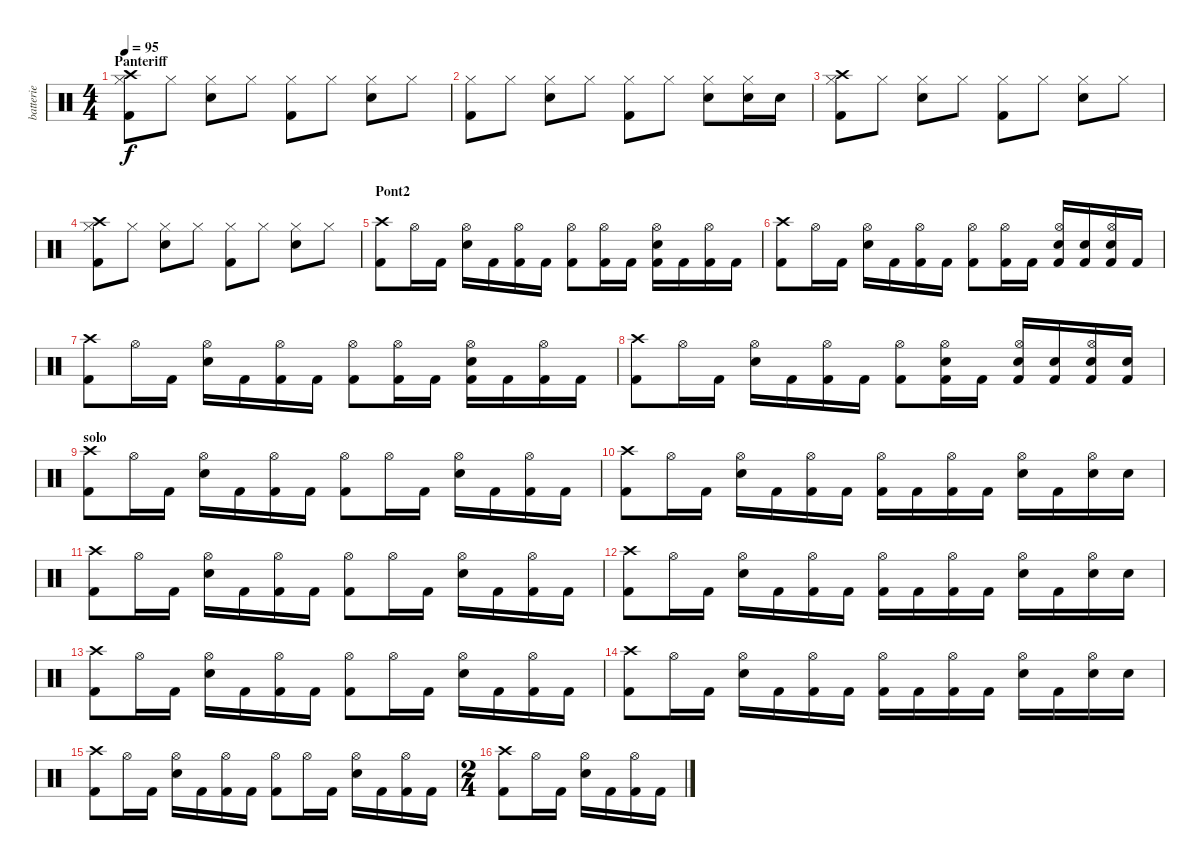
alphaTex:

\track ("batterie" "batterie") {instrument percussion}
\staff {score}
\articulation defaults
\ts (4 4)
\section ("" "Panteriff")
\tempo 95
\clef neutral
\ks c
("Crash high (hit)" "Kick (hit) 2" "Hi-Hat (closed)").8{dy f} "Hi-Hat (closed)".8 ("Snare (hit) 2" "Hi-Hat (closed)").8 "Hi-Hat (closed)".8 ("Kick (hit) 2" "Hi-Hat (closed)").8 "Hi-Hat (closed)".8 ("Snare (hit) 2" "Hi-Hat (closed)").8 "Hi-Hat (closed)".8 |
("Kick (hit) 2" "Hi-Hat (closed)").8 "Hi-Hat (closed)".8 ("Snare (hit) 2" "Hi-Hat (closed)").8 "Hi-Hat (closed)".8 ("Kick (hit) 2" "Hi-Hat (closed)").8 "Hi-Hat (closed)".8 ("Snare (hit) 2" "Hi-Hat (closed)").8 ("Snare (hit) 2" "Hi-Hat (closed)").16 "Snare (hit) 2".16 |
("Crash high (hit)" "Kick (hit) 2" "Hi-Hat (closed)").8 "Hi-Hat (closed)".8 ("Snare (hit) 2" "Hi-Hat (closed)").8 "Hi-Hat (closed)".8 ("Kick (hit) 2" "Hi-Hat (closed)").8 "Hi-Hat (closed)".8 ("Snare (hit) 2" "Hi-Hat (closed)").8 "Hi-Hat (closed)".8 |
("Crash high (hit)" "Kick (hit) 2" "Hi-Hat (closed)").8 "Hi-Hat (closed)".8 ("Snare (hit) 2" "Hi-Hat (closed)").8 "Hi-Hat (closed)".8 ("Kick (hit) 2" "Hi-Hat (closed)").8 "Hi-Hat (closed)".8 ("Snare (hit) 2" "Hi-Hat (closed)").8 "Hi-Hat (closed)".8 |
\section ("" "Pont2")
("Crash high (hit)" "Kick (hit) 2").8 "Hi-Hat (open)".16 "Kick (hit) 2".16 ("Electric Snare (hit)" "Hi-Hat (open)").16 "Kick (hit) 2".16 ("Kick (hit) 2" "Hi-Hat (open)").16 "Kick (hit) 2".16 ("Kick (hit) 2" "Hi-Hat (open)").8 ("Kick (hit) 2" "Hi-Hat (open)").16 "Kick (hit) 2".16 ("Electric Snare (hit)" "Kick (hit) 2" "Hi-Hat (open)").16 "Kick (hit) 2".16 ("Kick (hit) 2" "Hi-Hat (open)").16 "Kick (hit) 2".16 |
("Crash high (hit)" "Kick (hit) 2").8 "Hi-Hat (open)".16 "Kick (hit) 2".16 ("Electric Snare (hit)" "Hi-Hat (open)").16 "Kick (hit) 2".16 ("Kick (hit) 2" "Hi-Hat (open)").16 "Kick (hit) 2".16 ("Kick (hit) 2" "Hi-Hat (open)").8 ("Kick (hit) 2" "Hi-Hat (open)").16 "Kick (hit) 2".16 ("Electric Snare (hit)" "Kick (hit) 2" "Hi-Hat (open)").16 ("Electric Snare (hit)" "Kick (hit) 2").16 ("Electric Snare (hit)" "Kick (hit) 2" "Hi-Hat (open)").16 "Kick (hit) 2".16 |
("Crash high (hit)" "Kick (hit) 2").8 "Hi-Hat (open)".16 "Kick (hit) 2".16 ("Electric Snare (hit)" "Hi-Hat (open)").16 "Kick (hit) 2".16 ("Kick (hit) 2" "Hi-Hat (open)").16 "Kick (hit) 2".16 ("Kick (hit) 2" "Hi-Hat (open)").8 ("Kick (hit) 2" "Hi-Hat (open)").16 "Kick (hit) 2".16 ("Electric Snare (hit)" "Kick (hit) 2" "Hi-Hat (open)").16 "Kick (hit) 2".16 ("Kick (hit) 2" "Hi-Hat (open)").16 "Kick (hit) 2".16 |
("Crash high (hit)" "Kick (hit) 2").8 "Hi-Hat (open)".16 "Kick (hit) 2".16 ("Electric Snare (hit)" "Hi-Hat (open)").16 "Kick (hit) 2".16 ("Kick (hit) 2" "Hi-Hat (open)").16 "Kick (hit) 2".16 ("Kick (hit) 2" "Hi-Hat (open)").8 ("Electric Snare (hit)" "Kick (hit) 2" "Hi-Hat (open)").16 "Kick (hit) 2".16 ("Electric Snare (hit)" "Kick (hit) 2" "Hi-Hat (open)").16 ("Electric Snare (hit)" "Kick (hit) 2").16 ("Electric Snare (hit)" "Kick (hit) 2" "Hi-Hat (open)").16 ("Electric Snare (hit)" "Kick (hit) 2").16 |
\section ("" "solo")
("Crash high (hit)" "Kick (hit) 2").8 "Hi-Hat (open)".16 "Kick (hit) 2".16 ("Electric Snare (hit)" "Hi-Hat (open)").16 "Kick (hit) 2".16 ("Kick (hit) 2" "Hi-Hat (open)").16 "Kick (hit) 2".16 ("Kick (hit) 2" "Hi-Hat (open)").8 "Hi-Hat (open)".16 "Kick (hit) 2".16 ("Electric Snare (hit)" "Hi-Hat (open)").16 "Kick (hit) 2".16 ("Kick (hit) 2" "Hi-Hat (open)").16 "Kick (hit) 2".16 |
("Crash high (hit)" "Kick (hit) 2").8 "Hi-Hat (open)".16 "Kick (hit) 2".16 ("Electric Snare (hit)" "Hi-Hat (open)").16 "Kick (hit) 2".16 ("Kick (hit) 2" "Hi-Hat (open)").16 "Kick (hit) 2".16 ("Kick (hit) 2" "Hi-Hat (open)").16 "Kick (hit) 2".16 ("Kick (hit) 2" "Hi-Hat (open)").16 "Kick (hit) 2".16 ("Electric Snare (hit)" "Hi-Hat (open)").16 "Kick (hit) 2".16 ("Electric Snare (hit)" "Hi-Hat (open)").16 "Electric Snare (hit)".16 |
("Crash high (hit)" "Kick (hit) 2").8 "Hi-Hat (open)".16 "Kick (hit) 2".16 ("Electric Snare (hit)" "Hi-Hat (open)").16 "Kick (hit) 2".16 ("Kick (hit) 2" "Hi-Hat (open)").16 "Kick (hit) 2".16 ("Kick (hit) 2" "Hi-Hat (open)").8 "Hi-Hat (open)".16 "Kick (hit) 2".16 ("Electric Snare (hit)" "Hi-Hat (open)").16 "Kick (hit) 2".16 ("Kick (hit) 2" "Hi-Hat (open)").16 "Kick (hit) 2".16 |
("Crash high (hit)" "Kick (hit) 2").8 "Hi-Hat (open)".16 "Kick (hit) 2".16 ("Electric Snare (hit)" "Hi-Hat (open)").16 "Kick (hit) 2".16 ("Kick (hit) 2" "Hi-Hat (open)").16 "Kick (hit) 2".16 ("Kick (hit) 2" "Hi-Hat (open)").16 "Kick (hit) 2".16 ("Kick (hit) 2" "Hi-Hat (open)").16 "Kick (hit) 2".16 ("Electric Snare (hit)" "Hi-Hat (open)").16 "Kick (hit) 2".16 ("Electric Snare (hit)" "Hi-Hat (open)").16 "Electric Snare (hit)".16 |
("Crash high (hit)" "Kick (hit) 2").8 "Hi-Hat (open)".16 "Kick (hit) 2".16 ("Electric Snare (hit)" "Hi-Hat (open)").16 "Kick (hit) 2".16 ("Kick (hit) 2" "Hi-Hat (open)").16 "Kick (hit) 2".16 ("Kick (hit) 2" "Hi-Hat (open)").8 "Hi-Hat (open)".16 "Kick (hit) 2".16 ("Electric Snare (hit)" "Hi-Hat (open)").16 "Kick (hit) 2".16 ("Kick (hit) 2" "Hi-Hat (open)").16 "Kick (hit) 2".16 |
("Crash high (hit)" "Kick (hit) 2").8 "Hi-Hat (open)".16 "Kick (hit) 2".16 ("Electric Snare (hit)" "Hi-Hat (open)").16 "Kick (hit) 2".16 ("Kick (hit) 2" "Hi-Hat (open)").16 "Kick (hit) 2".16 ("Kick (hit) 2" "Hi-Hat (open)").16 "Kick (hit) 2".16 ("Kick (hit) 2" "Hi-Hat (open)").16 "Kick (hit) 2".16 ("Electric Snare (hit)" "Hi-Hat (open)").16 "Kick (hit) 2".16 ("Electric Snare (hit)" "Hi-Hat (open)").16 "Electric Snare (hit)".16 |
("Crash high (hit)" "Kick (hit) 2").8 "Hi-Hat (open)".16 "Kick (hit) 2".16 ("Electric Snare (hit)" "Hi-Hat (open)").16 "Kick (hit) 2".16 ("Kick (hit) 2" "Hi-Hat (open)").16 "Kick (hit) 2".16 ("Kick (hit) 2" "Hi-Hat (open)").8 "Hi-Hat (open)".16 "Kick (hit) 2".16 ("Electric Snare (hit)" "Hi-Hat (open)").16 "Kick (hit) 2".16 ("Kick (hit) 2" "Hi-Hat (open)").16 "Kick (hit) 2".16 |
\ts (2 4)
("Crash high (hit)" "Kick (hit) 2").8 "Hi-Hat (open)".16 "Kick (hit) 2".16 ("Electric Snare (hit)" "Hi-Hat (open)").16 "Kick (hit) 2".16 ("Kick (hit) 2" "Hi-Hat (open)").16 "Kick (hit) 2".16
